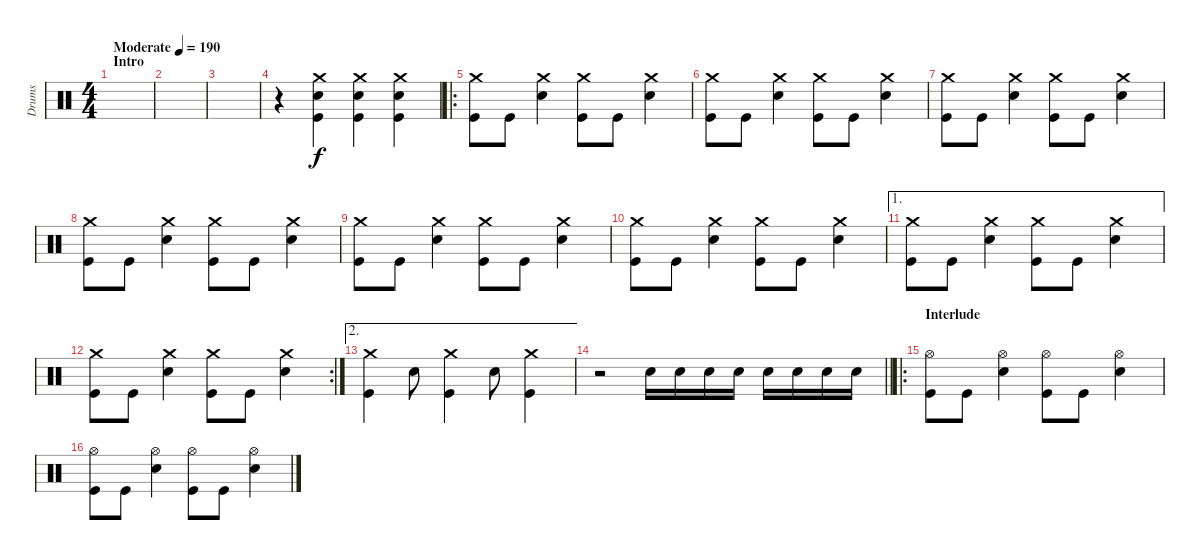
\track ("Drums" "Drums") {instrument percussion}
\staff {score}
\articulation defaults
\ts (4 4)
\section ("" "Intro")
\tempo (190 "Moderate")
\clef neutral
\ks c
|
|
|
r.4 ("Crash medium (hit)" "Snare (hit) 2" "Kick (hit)").4 ("Crash medium (hit)" "Snare (hit) 2" "Kick (hit)").4 ("Crash medium (hit)" "Snare (hit) 2" "Kick (hit)").4 |
\ro
("Crash medium (hit)" "Kick (hit)").8 "Kick (hit)".8 ("Crash medium (hit)" "Snare (hit) 2").4 ("Crash medium (hit)" "Kick (hit)").8 "Kick (hit)".8 ("Crash medium (hit)" "Snare (hit) 2").4 |
("Crash medium (hit)" "Kick (hit)").8 "Kick (hit)".8 ("Crash medium (hit)" "Snare (hit) 2").4 ("Crash medium (hit)" "Kick (hit)").8 "Kick (hit)".8 ("Crash medium (hit)" "Snare (hit) 2").4 |
("Crash medium (hit)" "Kick (hit)").8 "Kick (hit)".8 ("Crash medium (hit)" "Snare (hit) 2").4 ("Crash medium (hit)" "Kick (hit)").8 "Kick (hit)".8 ("Crash medium (hit)" "Snare (hit) 2").4 |
("Crash medium (hit)" "Kick (hit)").8 "Kick (hit)".8 ("Crash medium (hit)" "Snare (hit) 2").4 ("Crash medium (hit)" "Kick (hit)").8 "Kick (hit)".8 ("Crash medium (hit)" "Snare (hit) 2").4 |
("Crash medium (hit)" "Kick (hit)").8 "Kick (hit)".8 ("Crash medium (hit)" "Snare (hit) 2").4 ("Crash medium (hit)" "Kick (hit)").8 "Kick (hit)".8 ("Crash medium (hit)" "Snare (hit) 2").4 |
("Crash medium (hit)" "Kick (hit)").8 "Kick (hit)".8 ("Crash medium (hit)" "Snare (hit) 2").4 ("Crash medium (hit)" "Kick (hit)").8 "Kick (hit)".8 ("Crash medium (hit)" "Snare (hit) 2").4 |
\ae 1
("Crash medium (hit)" "Kick (hit)").8 "Kick (hit)".8 ("Crash medium (hit)" "Snare (hit) 2").4 ("Crash medium (hit)" "Kick (hit)").8 "Kick (hit)".8 ("Crash medium (hit)" "Snare (hit) 2").4 |
\rc 2
("Crash medium (hit)" "Kick (hit)").8 "Kick (hit)".8 ("Crash medium (hit)" "Snare (hit) 2").4 ("Crash medium (hit)" "Kick (hit)").8 "Kick (hit)".8 ("Crash medium (hit)" "Snare (hit) 2").4 |
\ae 2
("Crash medium (hit)" "Kick (hit)").4 "Snare (hit) 2".8 ("Crash medium (hit)" "Kick (hit)").4 "Snare (hit) 2".8 ("Crash medium (hit)" "Kick (hit)").4 |
\barLineRight lightlight
r.2 "Snare (hit) 2".16 "Snare (hit) 2".16 "Snare (hit) 2".16 "Snare (hit) 2".16 "Snare (hit) 2".16 "Snare (hit) 2".16 "Snare (hit) 2".16 "Snare (hit) 2".16 |
\ro
\section ("" "Interlude")
("Hi-Hat (open)" "Kick (hit)").8 "Kick (hit)".8 ("Hi-Hat (open)" "Snare (hit) 2").4 ("Hi-Hat (open)" "Kick (hit)").8 "Kick (hit)".8 ("Hi-Hat (open)" "Snare (hit) 2").4 |
("Hi-Hat (open)" "Kick (hit)").8 "Kick (hit)".8 ("Hi-Hat (open)" "Snare (hit) 2").4 ("Hi-Hat (open)" "Kick (hit)").8 "Kick (hit)".8 ("Hi-Hat (open)" "Snare (hit) 2").4
